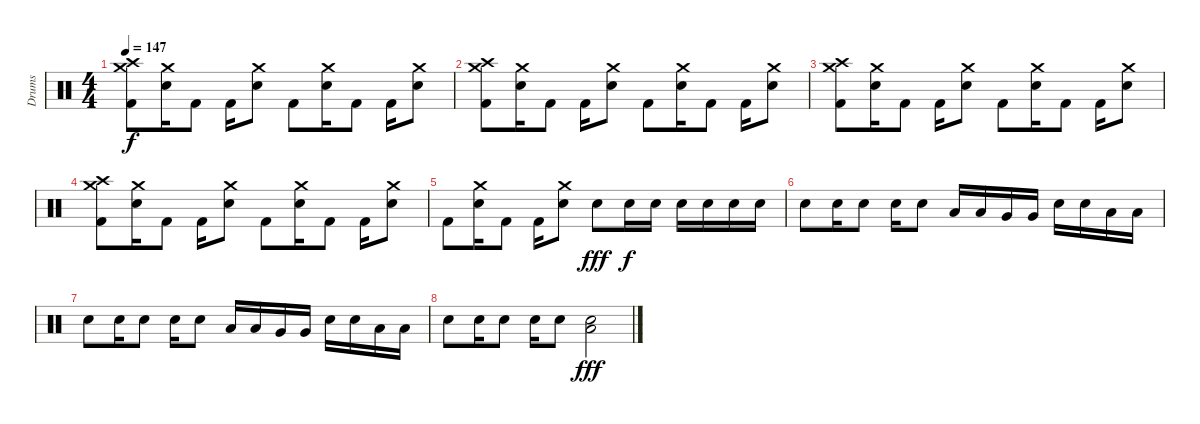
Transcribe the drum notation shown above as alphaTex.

\track ("Drums" "Drums") {instrument percussion}
\staff {score}
\articulation defaults
\ts (4 4)
\tempo 147
\clef neutral
\ks c
("Crash high (hit)" "Crash medium (hit)" "Kick (hit) 2").8{dy f} ("Crash medium (hit)" "Electric Snare (hit)").16 "Kick (hit) 2".8 "Kick (hit) 2".16 ("Crash medium (hit)" "Electric Snare (hit)").8 "Kick (hit) 2".8 ("Crash medium (hit)" "Electric Snare (hit)").16 "Kick (hit) 2".8 "Kick (hit) 2".16 ("Crash medium (hit)" "Electric Snare (hit)").8 |
("Crash high (hit)" "Crash medium (hit)" "Kick (hit) 2").8 ("Crash medium (hit)" "Electric Snare (hit)").16 "Kick (hit) 2".8 "Kick (hit) 2".16 ("Crash medium (hit)" "Electric Snare (hit)").8 "Kick (hit) 2".8 ("Crash medium (hit)" "Electric Snare (hit)").16 "Kick (hit) 2".8 "Kick (hit) 2".16 ("Crash medium (hit)" "Electric Snare (hit)").8 |
("Crash high (hit)" "Crash medium (hit)" "Kick (hit) 2").8 ("Crash medium (hit)" "Electric Snare (hit)").16 "Kick (hit) 2".8 "Kick (hit) 2".16 ("Crash medium (hit)" "Electric Snare (hit)").8 "Kick (hit) 2".8 ("Crash medium (hit)" "Electric Snare (hit)").16 "Kick (hit) 2".8 "Kick (hit) 2".16 ("Crash medium (hit)" "Electric Snare (hit)").8 |
("Crash high (hit)" "Crash medium (hit)" "Kick (hit) 2").8 ("Crash medium (hit)" "Electric Snare (hit)").16 "Kick (hit) 2".8 "Kick (hit) 2".16 ("Crash medium (hit)" "Electric Snare (hit)").8 "Kick (hit) 2".8 ("Crash medium (hit)" "Electric Snare (hit)").16 "Kick (hit) 2".8 "Kick (hit) 2".16 ("Crash medium (hit)" "Electric Snare (hit)").8 |
"Kick (hit) 2".8 ("Crash medium (hit)" "Electric Snare (hit)").16 "Kick (hit) 2".8 "Kick (hit) 2".16 ("Crash medium (hit)" "Electric Snare (hit)").8 "Electric Snare (hit)".8{dy fff} "Electric Snare (hit)".16{dy f} "Electric Snare (hit)".16 "Electric Snare (hit)".16 "Electric Snare (hit)".16 "Electric Snare (hit)".16 "Electric Snare (hit)".16 |
"Electric Snare (hit)".8 "Electric Snare (hit)".16 "Electric Snare (hit)".8 "Electric Snare (hit)".16 "Electric Snare (hit)".8 "Low Tom (hit)".16 "Low Tom (hit)".16 "Very Low Tom (hit)".16 "Very Low Tom (hit)".16 "Electric Snare (hit)".16 "Electric Snare (hit)".16 "Low Tom (hit)".16 "Low Tom (hit)".16 |
"Electric Snare (hit)".8 "Electric Snare (hit)".16 "Electric Snare (hit)".8 "Electric Snare (hit)".16 "Electric Snare (hit)".8 "Low Tom (hit)".16 "Low Tom (hit)".16 "Very Low Tom (hit)".16 "Very Low Tom (hit)".16 "Electric Snare (hit)".16 "Electric Snare (hit)".16 "Low Tom (hit)".16 "Low Tom (hit)".16 |
"Electric Snare (hit)".8 "Electric Snare (hit)".16 "Electric Snare (hit)".8 "Electric Snare (hit)".16 "Electric Snare (hit)".8 ("Electric Snare (hit)" "Low Floor Tom (hit)").2{dy fff}
